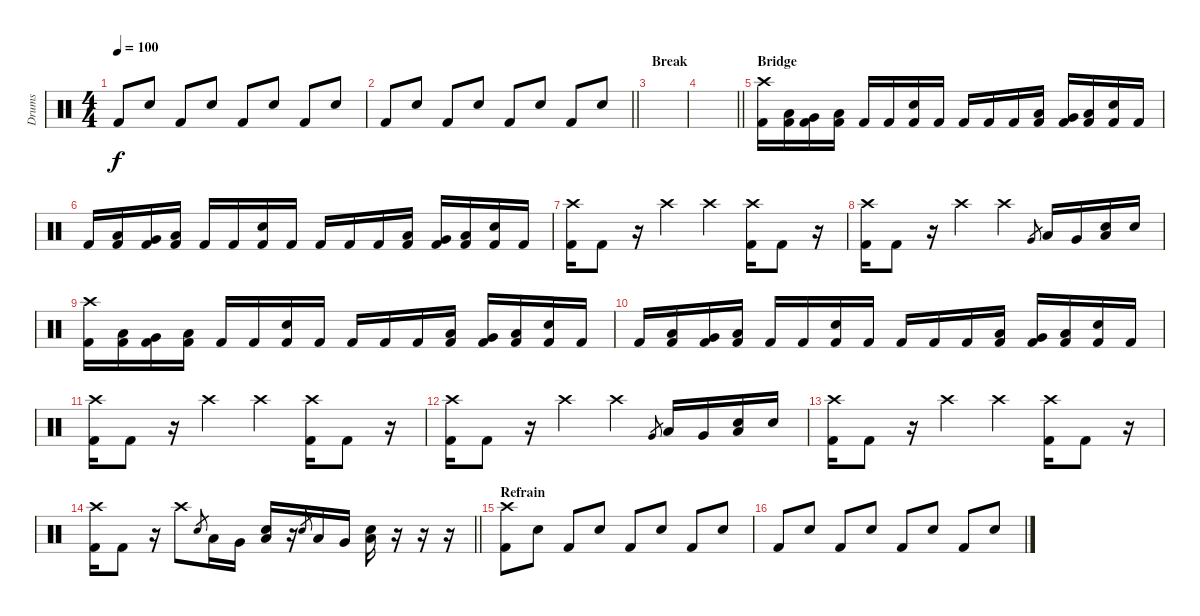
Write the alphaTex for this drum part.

\track ("Drums" "Drums") {instrument percussion}
\staff {score}
\articulation defaults
\ts (4 4)
\tempo 100
\clef neutral
\ks c "Kick (hit) 2".8{dy f} "Snare (hit) 2".8 "Kick (hit) 2".8 "Snare (hit) 2".8 "Kick (hit) 2".8 "Snare (hit) 2".8 "Kick (hit) 2".8 "Snare (hit) 2".8
|
\barLineRight lightlight "Kick (hit) 2".8 "Snare (hit) 2".8 "Kick (hit) 2".8 "Snare (hit) 2".8 "Kick (hit) 2".8 "Snare (hit) 2".8 "Kick (hit) 2".8 "Snare (hit) 2".8
|
\section ("" "Break")
|
\barLineRight lightlight
|
\section ("" "Bridge")
("Crash high (hit)" "Kick (hit) 2").16 ("Low Tom (hit)" "Kick (hit) 2").16 ("Very Low Tom (hit)" "Kick (hit) 2").16 ("Low Floor Tom (hit)" "Kick (hit) 2").16 "Kick (hit) 2".16 "Kick (hit) 2".16 ("Snare (hit) 2" "Kick (hit) 2").16 "Kick (hit) 2".16 "Kick (hit) 2".16 "Kick (hit) 2".16 "Kick (hit) 2".16 ("Low Tom (hit)" "Kick (hit) 2").16 ("Very Low Tom (hit)" "Kick (hit) 2").16 ("Low Floor Tom (hit)" "Kick (hit) 2").16 ("Snare (hit) 2" "Kick (hit) 2").16 "Kick (hit) 2".16 |
"Kick (hit) 2".16 ("Low Tom (hit)" "Kick (hit) 2").16 ("Very Low Tom (hit)" "Kick (hit) 2").16 ("Low Floor Tom (hit)" "Kick (hit) 2").16 "Kick (hit) 2".16 "Kick (hit) 2".16 ("Snare (hit) 2" "Kick (hit) 2").16 "Kick (hit) 2".16 "Kick (hit) 2".16 "Kick (hit) 2".16 "Kick (hit) 2".16 ("Low Tom (hit)" "Kick (hit) 2").16 ("Very Low Tom (hit)" "Kick (hit) 2").16 ("Low Floor Tom (hit)" "Kick (hit) 2").16 ("Snare (hit) 2" "Kick (hit) 2").16 "Kick (hit) 2".16 |
("Crash high (hit)" "Kick (hit) 2").16 "Kick (hit) 2".8 r.16 "Crash high (hit)".4 "Crash high (hit)".4 ("Crash high (hit)" "Kick (hit) 2").16 "Kick (hit) 2".8 r.16 |
("Crash high (hit)" "Kick (hit) 2").16 "Kick (hit) 2".8 r.16 "Crash high (hit)".4 "Crash high (hit)".4 "Very Low Tom (hit)".8{gr} "Low Tom (hit)".16 "Very Low Tom (hit)".16 ("Low Floor Tom (hit)" "Snare (hit) 2").16 "Snare (hit) 2".16 |
("Crash high (hit)" "Kick (hit) 2").16 ("Low Tom (hit)" "Kick (hit) 2").16 ("Very Low Tom (hit)" "Kick (hit) 2").16 ("Low Floor Tom (hit)" "Kick (hit) 2").16 "Kick (hit) 2".16 "Kick (hit) 2".16 ("Snare (hit) 2" "Kick (hit) 2").16 "Kick (hit) 2".16 "Kick (hit) 2".16 "Kick (hit) 2".16 "Kick (hit) 2".16 ("Low Tom (hit)" "Kick (hit) 2").16 ("Very Low Tom (hit)" "Kick (hit) 2").16 ("Low Floor Tom (hit)" "Kick (hit) 2").16 ("Snare (hit) 2" "Kick (hit) 2").16 "Kick (hit) 2".16 |
"Kick (hit) 2".16 ("Low Tom (hit)" "Kick (hit) 2").16 ("Very Low Tom (hit)" "Kick (hit) 2").16 ("Low Floor Tom (hit)" "Kick (hit) 2").16 "Kick (hit) 2".16 "Kick (hit) 2".16 ("Snare (hit) 2" "Kick (hit) 2").16 "Kick (hit) 2".16 "Kick (hit) 2".16 "Kick (hit) 2".16 "Kick (hit) 2".16 ("Low Tom (hit)" "Kick (hit) 2").16 ("Very Low Tom (hit)" "Kick (hit) 2").16 ("Low Floor Tom (hit)" "Kick (hit) 2").16 ("Snare (hit) 2" "Kick (hit) 2").16 "Kick (hit) 2".16 |
("Crash high (hit)" "Kick (hit) 2").16 "Kick (hit) 2".8 r.16 "Crash high (hit)".4 "Crash high (hit)".4 ("Crash high (hit)" "Kick (hit) 2").16 "Kick (hit) 2".8 r.16 |
("Crash high (hit)" "Kick (hit) 2").16 "Kick (hit) 2".8 r.16 "Crash high (hit)".4 "Crash high (hit)".4 "Very Low Tom (hit)".8{gr} "Low Tom (hit)".16 "Very Low Tom (hit)".16 ("Low Floor Tom (hit)" "Snare (hit) 2").16 "Snare (hit) 2".16 |
("Crash high (hit)" "Kick (hit) 2").16 "Kick (hit) 2".8 r.16 "Crash high (hit)".4 "Crash high (hit)".4 ("Crash high (hit)" "Kick (hit) 2").16 "Kick (hit) 2".8 r.16 |
\barLineRight lightlight
("Crash high (hit)" "Kick (hit) 2").16 "Kick (hit) 2".8 r.16 "Crash high (hit)".8 "Snare (hit) 2".8{gr} "Low Tom (hit)".16 "Very Low Tom (hit)".16 ("Low Floor Tom (hit)" "Snare (hit) 2").16 r.16 "Snare (hit) 2".8{gr} "Low Tom (hit)".16 "Very Low Tom (hit)".16 ("Low Floor Tom (hit)" "Snare (hit) 2").16 r.16 r.16 r.16 |
\section ("" "Refrain")
("Crash high (hit)" "Kick (hit) 2").8 "Snare (hit) 2".8 "Kick (hit) 2".8 "Snare (hit) 2".8 "Kick (hit) 2".8 "Snare (hit) 2".8 "Kick (hit) 2".8 "Snare (hit) 2".8 |
"Kick (hit) 2".8 "Snare (hit) 2".8 "Kick (hit) 2".8 "Snare (hit) 2".8 "Kick (hit) 2".8 "Snare (hit) 2".8 "Kick (hit) 2".8 "Snare (hit) 2".8
